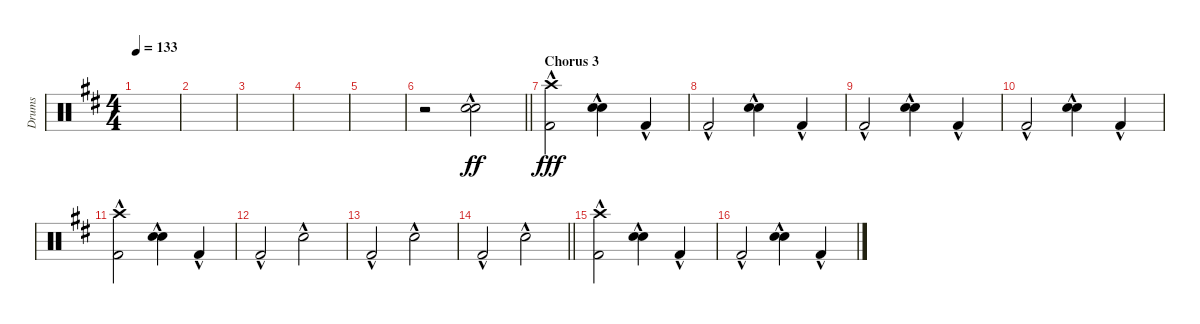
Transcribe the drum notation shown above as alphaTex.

\track ("Drums" "Drums") {instrument percussion}
\staff {score}
\articulation defaults
\ts (4 4)
\tempo 133
\clef neutral
\ks bminor
|
|
|
|
|
\barLineRight lightlight
r.2 ("Hand Clap (hit)"{hac} "Snare (hit) 2"{hac}).2{dy ff} |
\section ("" "Chorus 3")
("Crash high (hit)"{hac} "Kick (hit) 2"{hac}).2{dy fff} ("Hand Clap (hit)"{hac} "Snare (hit) 2"{hac}).4 "Kick (hit) 2"{hac}.4 |
"Kick (hit) 2"{hac}.2 ("Hand Clap (hit)"{hac} "Snare (hit) 2"{hac}).4 "Kick (hit) 2"{hac}.4 |
"Kick (hit) 2"{hac}.2 ("Hand Clap (hit)"{hac} "Snare (hit) 2"{hac}).4 "Kick (hit) 2"{hac}.4 |
"Kick (hit) 2"{hac}.2 ("Hand Clap (hit)"{hac} "Snare (hit) 2"{hac}).4 "Kick (hit) 2"{hac}.4 |
("Crash high (hit)"{hac} "Kick (hit) 2"{hac}).2 ("Hand Clap (hit)"{hac} "Snare (hit) 2"{hac}).4 "Kick (hit) 2"{hac}.4 |
"Kick (hit) 2"{hac}.2 "Snare (hit) 2"{hac}.2 |
"Kick (hit) 2"{hac}.2 "Snare (hit) 2"{hac}.2 |
\barLineRight lightlight "Kick (hit) 2"{hac}.2 "Snare (hit) 2"{hac}.2
|
("Crash high (hit)"{hac} "Kick (hit) 2"{hac}).2 ("Hand Clap (hit)"{hac} "Snare (hit) 2"{hac}).4 "Kick (hit) 2"{hac}.4 |
"Kick (hit) 2"{hac}.2 ("Hand Clap (hit)"{hac} "Snare (hit) 2"{hac}).4 "Kick (hit) 2"{hac}.4
